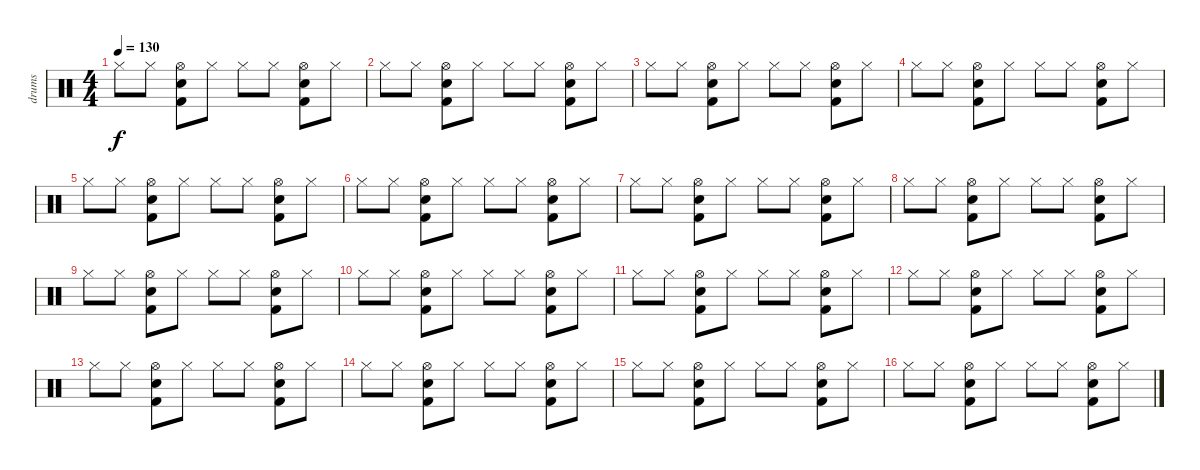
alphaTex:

\track ("drums" "drums") {instrument percussion}
\staff {score}
\articulation defaults
\ts (4 4)
\tempo 130
\clef neutral
\ks c "Hi-Hat (closed)".8{dy f} "Hi-Hat (closed)".8
("Snare (hit) 2" "Hi-Hat (open)" "Kick (hit) 2").8 "Hi-Hat (closed)".8 "Hi-Hat (closed)".8 "Hi-Hat (closed)".8 ("Snare (hit) 2" "Hi-Hat (open)" "Kick (hit) 2").8 "Hi-Hat (closed)".8 |
"Hi-Hat (closed)".8 "Hi-Hat (closed)".8 ("Snare (hit) 2" "Hi-Hat (open)" "Kick (hit) 2").8 "Hi-Hat (closed)".8 "Hi-Hat (closed)".8 "Hi-Hat (closed)".8 ("Snare (hit) 2" "Hi-Hat (open)" "Kick (hit) 2").8 "Hi-Hat (closed)".8 |
"Hi-Hat (closed)".8 "Hi-Hat (closed)".8 ("Snare (hit) 2" "Hi-Hat (open)" "Kick (hit) 2").8 "Hi-Hat (closed)".8 "Hi-Hat (closed)".8 "Hi-Hat (closed)".8 ("Snare (hit) 2" "Hi-Hat (open)" "Kick (hit) 2").8 "Hi-Hat (closed)".8 |
"Hi-Hat (closed)".8 "Hi-Hat (closed)".8 ("Snare (hit) 2" "Hi-Hat (open)" "Kick (hit) 2").8 "Hi-Hat (closed)".8 "Hi-Hat (closed)".8 "Hi-Hat (closed)".8 ("Snare (hit) 2" "Hi-Hat (open)" "Kick (hit) 2").8 "Hi-Hat (closed)".8 |
"Hi-Hat (closed)".8 "Hi-Hat (closed)".8 ("Snare (hit) 2" "Hi-Hat (open)" "Kick (hit) 2").8 "Hi-Hat (closed)".8 "Hi-Hat (closed)".8 "Hi-Hat (closed)".8 ("Snare (hit) 2" "Hi-Hat (open)" "Kick (hit) 2").8 "Hi-Hat (closed)".8 |
"Hi-Hat (closed)".8 "Hi-Hat (closed)".8 ("Snare (hit) 2" "Hi-Hat (open)" "Kick (hit) 2").8 "Hi-Hat (closed)".8 "Hi-Hat (closed)".8 "Hi-Hat (closed)".8 ("Snare (hit) 2" "Hi-Hat (open)" "Kick (hit) 2").8 "Hi-Hat (closed)".8 |
"Hi-Hat (closed)".8 "Hi-Hat (closed)".8 ("Snare (hit) 2" "Hi-Hat (open)" "Kick (hit) 2").8 "Hi-Hat (closed)".8 "Hi-Hat (closed)".8 "Hi-Hat (closed)".8 ("Snare (hit) 2" "Hi-Hat (open)" "Kick (hit) 2").8 "Hi-Hat (closed)".8 |
"Hi-Hat (closed)".8 "Hi-Hat (closed)".8 ("Snare (hit) 2" "Hi-Hat (open)" "Kick (hit) 2").8 "Hi-Hat (closed)".8 "Hi-Hat (closed)".8 "Hi-Hat (closed)".8 ("Snare (hit) 2" "Hi-Hat (open)" "Kick (hit) 2").8 "Hi-Hat (closed)".8 |
"Hi-Hat (closed)".8 "Hi-Hat (closed)".8 ("Snare (hit) 2" "Hi-Hat (open)" "Kick (hit) 2").8 "Hi-Hat (closed)".8 "Hi-Hat (closed)".8 "Hi-Hat (closed)".8 ("Snare (hit) 2" "Hi-Hat (open)" "Kick (hit) 2").8 "Hi-Hat (closed)".8 |
"Hi-Hat (closed)".8 "Hi-Hat (closed)".8 ("Snare (hit) 2" "Hi-Hat (open)" "Kick (hit) 2").8 "Hi-Hat (closed)".8 "Hi-Hat (closed)".8 "Hi-Hat (closed)".8 ("Snare (hit) 2" "Hi-Hat (open)" "Kick (hit) 2").8 "Hi-Hat (closed)".8 |
"Hi-Hat (closed)".8 "Hi-Hat (closed)".8 ("Snare (hit) 2" "Hi-Hat (open)" "Kick (hit) 2").8 "Hi-Hat (closed)".8 "Hi-Hat (closed)".8 "Hi-Hat (closed)".8 ("Snare (hit) 2" "Hi-Hat (open)" "Kick (hit) 2").8 "Hi-Hat (closed)".8 |
"Hi-Hat (closed)".8 "Hi-Hat (closed)".8 ("Snare (hit) 2" "Hi-Hat (open)" "Kick (hit) 2").8 "Hi-Hat (closed)".8 "Hi-Hat (closed)".8 "Hi-Hat (closed)".8 ("Snare (hit) 2" "Hi-Hat (open)" "Kick (hit) 2").8 "Hi-Hat (closed)".8 |
"Hi-Hat (closed)".8 "Hi-Hat (closed)".8 ("Snare (hit) 2" "Hi-Hat (open)" "Kick (hit) 2").8 "Hi-Hat (closed)".8 "Hi-Hat (closed)".8 "Hi-Hat (closed)".8 ("Snare (hit) 2" "Hi-Hat (open)" "Kick (hit) 2").8 "Hi-Hat (closed)".8 |
"Hi-Hat (closed)".8 "Hi-Hat (closed)".8 ("Snare (hit) 2" "Hi-Hat (open)" "Kick (hit) 2").8 "Hi-Hat (closed)".8 "Hi-Hat (closed)".8 "Hi-Hat (closed)".8 ("Snare (hit) 2" "Hi-Hat (open)" "Kick (hit) 2").8 "Hi-Hat (closed)".8 |
"Hi-Hat (closed)".8 "Hi-Hat (closed)".8 ("Snare (hit) 2" "Hi-Hat (open)" "Kick (hit) 2").8 "Hi-Hat (closed)".8 "Hi-Hat (closed)".8 "Hi-Hat (closed)".8 ("Snare (hit) 2" "Hi-Hat (open)" "Kick (hit) 2").8 "Hi-Hat (closed)".8 |
"Hi-Hat (closed)".8 "Hi-Hat (closed)".8 ("Snare (hit) 2" "Hi-Hat (open)" "Kick (hit) 2").8 "Hi-Hat (closed)".8 "Hi-Hat (closed)".8 "Hi-Hat (closed)".8 ("Snare (hit) 2" "Hi-Hat (open)" "Kick (hit) 2").8 "Hi-Hat (closed)".8
